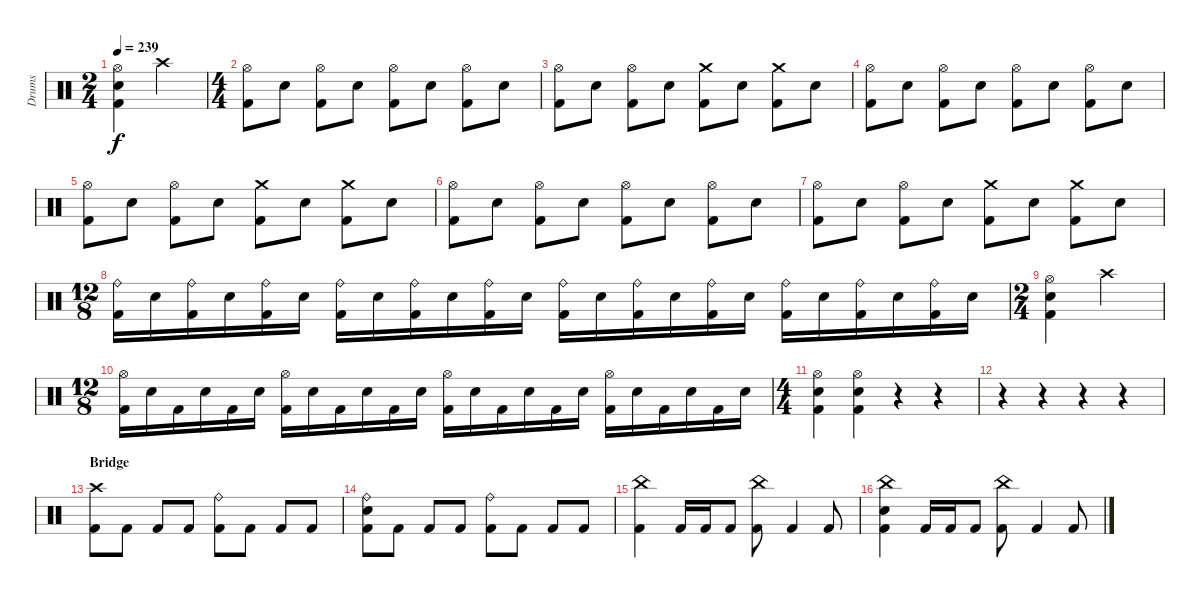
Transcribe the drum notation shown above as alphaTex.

\track ("Drums" "Drums") {instrument percussion}
\staff {score}
\articulation defaults
\ts (2 4)
\tempo 239
\clef neutral
\ks c
("Hi-Hat (open)" "Electric Snare (hit)" "Kick (hit) 2").4{dy f} "Crash high (hit)".4 |
\ts (4 4)
("Hi-Hat (open)" "Kick (hit) 2").8 "Electric Snare (hit)".8 ("Hi-Hat (open)" "Kick (hit) 2").8 "Electric Snare (hit)".8 ("Hi-Hat (open)" "Kick (hit) 2").8 "Electric Snare (hit)".8 ("Hi-Hat (open)" "Kick (hit) 2").8 "Electric Snare (hit)".8 |
("Hi-Hat (open)" "Kick (hit) 2").8 "Electric Snare (hit)".8 ("Hi-Hat (open)" "Kick (hit) 2").8 "Electric Snare (hit)".8 ("Crash medium (hit)" "Kick (hit) 2").8 "Electric Snare (hit)".8 ("Crash medium (hit)" "Kick (hit) 2").8 "Electric Snare (hit)".8 |
("Hi-Hat (open)" "Kick (hit) 2").8 "Electric Snare (hit)".8 ("Hi-Hat (open)" "Kick (hit) 2").8 "Electric Snare (hit)".8 ("Hi-Hat (open)" "Kick (hit) 2").8 "Electric Snare (hit)".8 ("Hi-Hat (open)" "Kick (hit) 2").8 "Electric Snare (hit)".8 |
("Hi-Hat (open)" "Kick (hit) 2").8 "Electric Snare (hit)".8 ("Hi-Hat (open)" "Kick (hit) 2").8 "Electric Snare (hit)".8 ("Crash medium (hit)" "Kick (hit) 2").8 "Electric Snare (hit)".8 ("Crash medium (hit)" "Kick (hit) 2").8 "Electric Snare (hit)".8 |
("Hi-Hat (open)" "Kick (hit) 2").8 "Electric Snare (hit)".8 ("Hi-Hat (open)" "Kick (hit) 2").8 "Electric Snare (hit)".8 ("Hi-Hat (open)" "Kick (hit) 2").8 "Electric Snare (hit)".8 ("Hi-Hat (open)" "Kick (hit) 2").8 "Electric Snare (hit)".8 |
("Hi-Hat (open)" "Kick (hit) 2").8 "Electric Snare (hit)".8 ("Hi-Hat (open)" "Kick (hit) 2").8 "Electric Snare (hit)".8 ("Crash medium (hit)" "Kick (hit) 2").8 "Electric Snare (hit)".8 ("Crash medium (hit)" "Kick (hit) 2").8 "Electric Snare (hit)".8 |
\ts (12 8)
("Ride (bell)" "Kick (hit) 2").16 "Electric Snare (hit)".16 ("Ride (bell)" "Kick (hit) 2").16 "Electric Snare (hit)".16 ("Ride (bell)" "Kick (hit) 2").16 "Electric Snare (hit)".16 ("Ride (bell)" "Kick (hit) 2").16 "Electric Snare (hit)".16 ("Ride (bell)" "Kick (hit) 2").16 "Electric Snare (hit)".16 ("Ride (bell)" "Kick (hit) 2").16 "Electric Snare (hit)".16 ("Ride (bell)" "Kick (hit) 2").16 "Electric Snare (hit)".16 ("Ride (bell)" "Kick (hit) 2").16 "Electric Snare (hit)".16 ("Ride (bell)" "Kick (hit) 2").16 "Electric Snare (hit)".16 ("Ride (bell)" "Kick (hit) 2").16 "Electric Snare (hit)".16 ("Ride (bell)" "Kick (hit) 2").16 "Electric Snare (hit)".16 ("Ride (bell)" "Kick (hit) 2").16 "Electric Snare (hit)".16 |
\ts (2 4)
("Hi-Hat (open)" "Electric Snare (hit)" "Kick (hit) 2").4 "Crash high (hit)".4 |
\ts (12 8)
\section ("" "")
("Hi-Hat (open)" "Kick (hit) 2").16 "Electric Snare (hit)".16 "Kick (hit) 2".16 "Electric Snare (hit)".16 "Kick (hit) 2".16 "Electric Snare (hit)".16 ("Hi-Hat (open)" "Kick (hit) 2").16 "Electric Snare (hit)".16 "Kick (hit) 2".16 "Electric Snare (hit)".16 "Kick (hit) 2".16 "Electric Snare (hit)".16 ("Hi-Hat (open)" "Kick (hit) 2").16 "Electric Snare (hit)".16 "Kick (hit) 2".16 "Electric Snare (hit)".16 "Kick (hit) 2".16 "Electric Snare (hit)".16 ("Hi-Hat (open)" "Kick (hit) 2").16 "Electric Snare (hit)".16 "Kick (hit) 2".16 "Electric Snare (hit)".16 "Kick (hit) 2".16 "Electric Snare (hit)".16 |
\ts (4 4)
("Hi-Hat (open)" "Electric Snare (hit)" "Kick (hit) 2").4 ("Hi-Hat (open)" "Electric Snare (hit)" "Kick (hit) 2").4 r.4 r.4 |
r.4 r.4 r.4 r.4 |
\section ("" "Bridge")
("Crash high (hit)" "Kick (hit) 2").8 "Kick (hit) 2".8 "Kick (hit) 2".8 "Kick (hit) 2".8 ("Ride (bell)" "Kick (hit) 2").8 "Kick (hit) 2".8 "Kick (hit) 2".8 "Kick (hit) 2".8 |
("Ride (bell)" "Electric Snare (hit)" "Kick (hit) 2").8 "Kick (hit) 2".8 "Kick (hit) 2".8 "Kick (hit) 2".8 ("Ride (bell)" "Kick (hit) 2").8 "Kick (hit) 2".8 "Kick (hit) 2".8 "Kick (hit) 2".8 |
("China (hit)" "Kick (hit) 2").4 "Kick (hit) 2".16 "Kick (hit) 2".16 "Kick (hit) 2".8 ("China (hit)" "Kick (hit) 2").8 "Kick (hit) 2".4 "Kick (hit) 2".8 |
("China (hit)" "Electric Snare (hit)" "Kick (hit) 2").4 "Kick (hit) 2".16 "Kick (hit) 2".16 "Kick (hit) 2".8 ("China (hit)" "Kick (hit) 2").8 "Kick (hit) 2".4 "Kick (hit) 2".8
